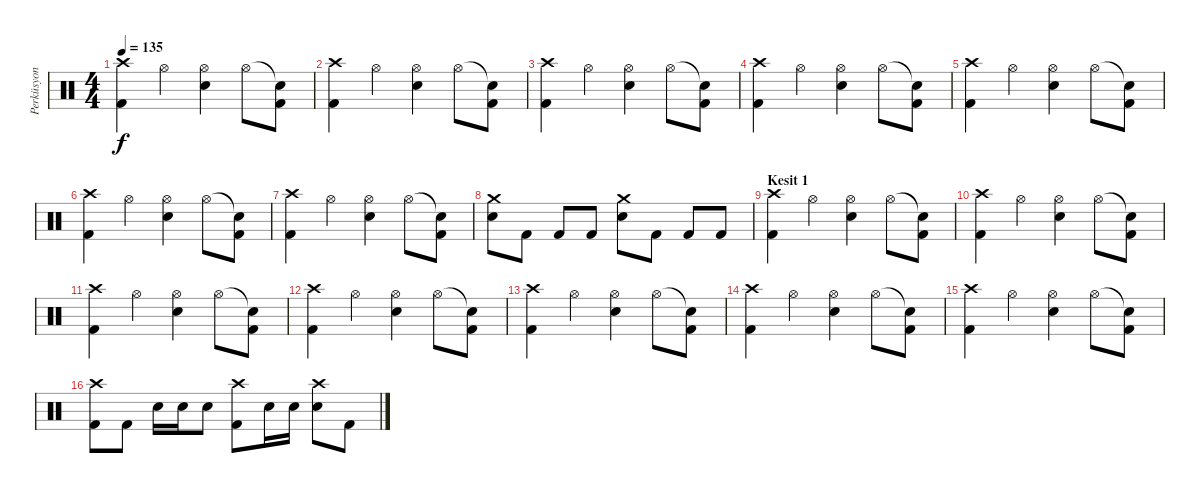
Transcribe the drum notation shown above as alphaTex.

\track ("Perküsyon" "Perküsyon") {instrument percussion}
\staff {score}
\articulation defaults
\ts (4 4)
\tempo 135
\clef neutral
\ks c
("Crash high (hit)" "Kick (hit) 2").4{dy f} "Hi-Hat (open)".4 ("Hi-Hat (open)" "Snare (hit) 2").4 "Hi-Hat (open)".8 ("Snare (hit)"{t} "Kick (hit) 2").8 |
("Crash high (hit)" "Kick (hit) 2").4 "Hi-Hat (open)".4 ("Hi-Hat (open)" "Snare (hit) 2").4 "Hi-Hat (open)".8 ("Snare (hit)"{t} "Kick (hit) 2").8 |
("Crash high (hit)" "Kick (hit) 2").4 "Hi-Hat (open)".4 ("Hi-Hat (open)" "Snare (hit) 2").4 "Hi-Hat (open)".8 ("Snare (hit)"{t} "Kick (hit) 2").8 |
("Crash high (hit)" "Kick (hit) 2").4 "Hi-Hat (open)".4 ("Hi-Hat (open)" "Snare (hit) 2").4 "Hi-Hat (open)".8 ("Snare (hit)"{t} "Kick (hit) 2").8 |
("Crash high (hit)" "Kick (hit) 2").4 "Hi-Hat (open)".4 ("Hi-Hat (open)" "Snare (hit) 2").4 "Hi-Hat (open)".8 ("Snare (hit)"{t} "Kick (hit) 2").8 |
("Crash high (hit)" "Kick (hit) 2").4 "Hi-Hat (open)".4 ("Hi-Hat (open)" "Snare (hit) 2").4 "Hi-Hat (open)".8 ("Snare (hit)"{t} "Kick (hit) 2").8 |
("Crash high (hit)" "Kick (hit) 2").4 "Hi-Hat (open)".4 ("Hi-Hat (open)" "Snare (hit) 2").4 "Hi-Hat (open)".8 ("Snare (hit)"{t} "Kick (hit) 2").8 |
("Snare (hit) 2" "Crash medium (hit)").8 "Kick (hit) 2".8 "Kick (hit) 2".8 "Kick (hit) 2".8 ("Snare (hit) 2" "Crash medium (hit)").8 "Kick (hit) 2".8 "Kick (hit) 2".8 "Kick (hit) 2".8 |
\section ("" "Kesit 1")
("Crash high (hit)" "Kick (hit) 2").4 "Hi-Hat (open)".4 ("Hi-Hat (open)" "Snare (hit) 2").4 "Hi-Hat (open)".8 ("Snare (hit)"{t} "Kick (hit) 2").8 |
("Crash high (hit)" "Kick (hit) 2").4 "Hi-Hat (open)".4 ("Hi-Hat (open)" "Snare (hit) 2").4 "Hi-Hat (open)".8 ("Snare (hit)"{t} "Kick (hit) 2").8 |
("Crash high (hit)" "Kick (hit) 2").4 "Hi-Hat (open)".4 ("Hi-Hat (open)" "Snare (hit) 2").4 "Hi-Hat (open)".8 ("Snare (hit)"{t} "Kick (hit) 2").8 |
("Crash high (hit)" "Kick (hit) 2").4 "Hi-Hat (open)".4 ("Hi-Hat (open)" "Snare (hit) 2").4 "Hi-Hat (open)".8 ("Snare (hit)"{t} "Kick (hit) 2").8 |
("Crash high (hit)" "Kick (hit) 2").4 "Hi-Hat (open)".4 ("Hi-Hat (open)" "Snare (hit) 2").4 "Hi-Hat (open)".8 ("Snare (hit)"{t} "Kick (hit) 2").8 |
("Crash high (hit)" "Kick (hit) 2").4 "Hi-Hat (open)".4 ("Hi-Hat (open)" "Snare (hit) 2").4 "Hi-Hat (open)".8 ("Snare (hit)"{t} "Kick (hit) 2").8 |
("Crash high (hit)" "Kick (hit) 2").4 "Hi-Hat (open)".4 ("Hi-Hat (open)" "Snare (hit) 2").4 "Hi-Hat (open)".8 ("Snare (hit)"{t} "Kick (hit) 2").8 |
("Kick (hit) 2" "Crash high (hit)").8 "Kick (hit) 2".8 "Snare (hit) 2".16 "Snare (hit) 2".16 "Snare (hit) 2".8 ("Kick (hit) 2" "Crash high (hit)").8 "Snare (hit) 2".16 "Snare (hit) 2".16 ("Snare (hit) 2" "Crash high (hit)").8 "Kick (hit) 2".8
